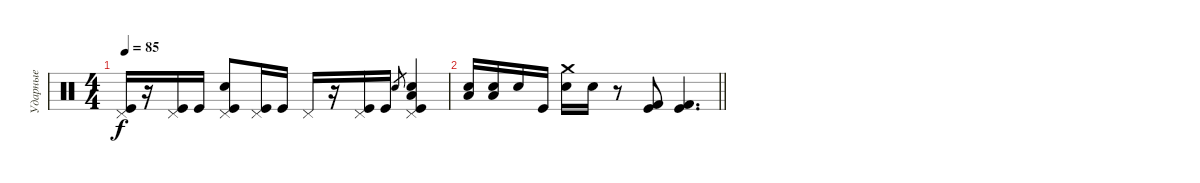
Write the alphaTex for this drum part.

\track ("Ударные" "Ударные") {instrument percussion}
\staff {score}
\articulation defaults
\ts (4 4)
\tempo 85
\clef neutral
\ks c
("Kick (hit)" "Pedal Hi-Hat (hit)").16{dy f} r.16 ("Kick (hit)" "Pedal Hi-Hat (hit)").16 "Kick (hit)".16 ("Kick (hit)" "Pedal Hi-Hat (hit)" "Electric Snare (hit)").8 ("Kick (hit)" "Pedal Hi-Hat (hit)").16 "Kick (hit)".16 "Pedal Hi-Hat (hit)".16 r.16 ("Kick (hit)" "Pedal Hi-Hat (hit)").16 "Kick (hit)".16 "Electric Snare (hit)".8{gr} ("Kick (hit)" "Low Tom (hit)" "Pedal Hi-Hat (hit)" "Electric Snare (hit)").4 |
\barLineRight lightlight
("Snare (hit) 2" "Low Tom (hit)").16 ("Snare (hit) 2" "Low Tom (hit)").16 "Electric Snare (hit)".16 "Kick (hit)".16 ("Electric Snare (hit)" "Crash medium (hit)").16 "Snare (hit) 2".16 r.8 ("Kick (hit)" "Kick (hit) 2").8 ("Kick (hit) 2" "Kick (hit)").4{d}
